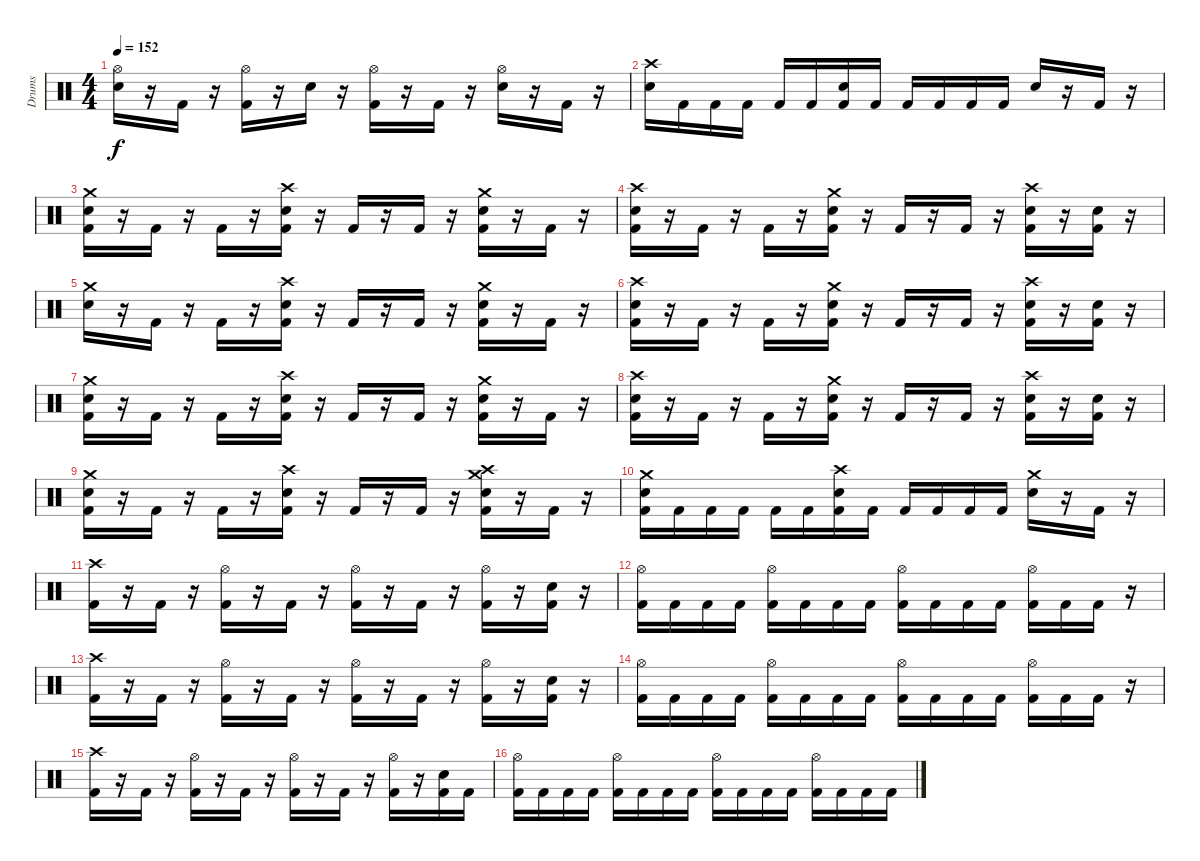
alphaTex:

\track ("Drums" "Drums") {instrument percussion}
\staff {score}
\articulation defaults
\ts (4 4)
\tempo 152
\clef neutral
\ks c
("Hi-Hat (open)" "Snare (hit) 2").16{dy f} r.16 "Kick (hit) 2".16 r.16 ("Hi-Hat (open)" "Kick (hit) 2").16 r.16 "Snare (hit) 2".16 r.16 ("Hi-Hat (open)" "Kick (hit) 2").16 r.16 "Kick (hit) 2".16 r.16 ("Hi-Hat (open)" "Snare (hit) 2").16 r.16 "Kick (hit) 2".16 r.16 |
("Crash high (hit)" "Snare (hit) 2").16 "Kick (hit) 2".16 "Kick (hit) 2".16 "Kick (hit) 2".16 "Kick (hit) 2".16 "Kick (hit) 2".16 ("Snare (hit) 2" "Kick (hit) 2").16 "Kick (hit) 2".16 "Kick (hit) 2".16 "Kick (hit) 2".16 "Kick (hit) 2".16 "Kick (hit) 2".16 "Snare (hit) 2".16 r.16 "Kick (hit) 2".16 r.16 |
("Crash medium (hit)" "Snare (hit) 2" "Kick (hit) 2").16 r.16 "Kick (hit) 2".16 r.16 "Kick (hit) 2".16 r.16 ("Crash high (hit)" "Snare (hit) 2" "Kick (hit) 2").16 r.16 "Kick (hit) 2".16 r.16 "Kick (hit) 2".16 r.16 ("Crash medium (hit)" "Snare (hit) 2" "Kick (hit) 2").16 r.16 "Kick (hit) 2".16 r.16 |
("Crash high (hit)" "Snare (hit) 2" "Kick (hit) 2").16 r.16 "Kick (hit) 2".16 r.16 "Kick (hit) 2".16 r.16 ("Crash medium (hit)" "Snare (hit) 2" "Kick (hit) 2").16 r.16 "Kick (hit) 2".16 r.16 "Kick (hit) 2".16 r.16 ("Crash high (hit)" "Snare (hit) 2" "Kick (hit) 2").16 r.16 ("Snare (hit) 2" "Kick (hit) 2").16 r.16 |
("Crash medium (hit)" "Snare (hit) 2").16 r.16 "Kick (hit) 2".16 r.16 "Kick (hit) 2".16 r.16 ("Crash high (hit)" "Snare (hit) 2" "Kick (hit) 2").16 r.16 "Kick (hit) 2".16 r.16 "Kick (hit) 2".16 r.16 ("Crash medium (hit)" "Snare (hit) 2" "Kick (hit) 2").16 r.16 "Kick (hit) 2".16 r.16 |
("Crash high (hit)" "Snare (hit) 2" "Kick (hit) 2").16 r.16 "Kick (hit) 2".16 r.16 "Kick (hit) 2".16 r.16 ("Crash medium (hit)" "Snare (hit) 2" "Kick (hit) 2").16 r.16 "Kick (hit) 2".16 r.16 "Kick (hit) 2".16 r.16 ("Crash high (hit)" "Snare (hit) 2" "Kick (hit) 2").16 r.16 ("Snare (hit) 2" "Kick (hit) 2").16 r.16 |
("Crash medium (hit)" "Snare (hit) 2" "Kick (hit) 2").16 r.16 "Kick (hit) 2".16 r.16 "Kick (hit) 2".16 r.16 ("Crash high (hit)" "Snare (hit) 2" "Kick (hit) 2").16 r.16 "Kick (hit) 2".16 r.16 "Kick (hit) 2".16 r.16 ("Crash medium (hit)" "Snare (hit) 2" "Kick (hit) 2").16 r.16 "Kick (hit) 2".16 r.16 |
("Crash high (hit)" "Snare (hit) 2" "Kick (hit) 2").16 r.16 "Kick (hit) 2".16 r.16 "Kick (hit) 2".16 r.16 ("Crash medium (hit)" "Snare (hit) 2" "Kick (hit) 2").16 r.16 "Kick (hit) 2".16 r.16 "Kick (hit) 2".16 r.16 ("Crash high (hit)" "Snare (hit) 2" "Kick (hit) 2").16 r.16 ("Snare (hit) 2" "Kick (hit) 2").16 r.16 |
("Crash medium (hit)" "Snare (hit) 2" "Kick (hit) 2").16 r.16 "Kick (hit) 2".16 r.16 "Kick (hit) 2".16 r.16 ("Crash high (hit)" "Snare (hit) 2" "Kick (hit) 2").16 r.16 "Kick (hit) 2".16 r.16 "Kick (hit) 2".16 r.16 ("Crash medium (hit)" "Crash high (hit)" "Snare (hit) 2" "Kick (hit) 2").16 r.16 "Kick (hit) 2".16 r.16 |
("Crash medium (hit)" "Snare (hit) 2" "Kick (hit) 2").16 "Kick (hit) 2".16 "Kick (hit) 2".16 "Kick (hit) 2".16 "Kick (hit) 2".16 "Kick (hit) 2".16 ("Crash high (hit)" "Snare (hit) 2" "Kick (hit) 2").16 "Kick (hit) 2".16 "Kick (hit) 2".16 "Kick (hit) 2".16 "Kick (hit) 2".16 "Kick (hit) 2".16 ("Crash medium (hit)" "Snare (hit) 2").16 r.16 "Kick (hit) 2".16 r.16 |
("Crash high (hit)" "Kick (hit) 2").16 r.16 "Kick (hit) 2".16 r.16 ("Hi-Hat (open)" "Kick (hit) 2").16 r.16 "Kick (hit) 2".16 r.16 ("Hi-Hat (open)" "Kick (hit) 2").16 r.16 "Kick (hit) 2".16 r.16 ("Hi-Hat (open)" "Kick (hit) 2").16 r.16 ("Snare (hit) 2" "Kick (hit) 2").16 r.16 |
("Hi-Hat (open)" "Kick (hit) 2").16 "Kick (hit) 2".16 "Kick (hit) 2".16 "Kick (hit) 2".16 ("Hi-Hat (open)" "Kick (hit) 2").16 "Kick (hit) 2".16 "Kick (hit) 2".16 "Kick (hit) 2".16 ("Hi-Hat (open)" "Kick (hit) 2").16 "Kick (hit) 2".16 "Kick (hit) 2".16 "Kick (hit) 2".16 ("Hi-Hat (open)" "Kick (hit) 2").16 "Kick (hit) 2".16 "Kick (hit) 2".16 r.16 |
("Crash high (hit)" "Kick (hit) 2").16 r.16 "Kick (hit) 2".16 r.16 ("Hi-Hat (open)" "Kick (hit) 2").16 r.16 "Kick (hit) 2".16 r.16 ("Hi-Hat (open)" "Kick (hit) 2").16 r.16 "Kick (hit) 2".16 r.16 ("Hi-Hat (open)" "Kick (hit) 2").16 r.16 ("Snare (hit) 2" "Kick (hit) 2").16 r.16 |
("Hi-Hat (open)" "Kick (hit) 2").16 "Kick (hit) 2".16 "Kick (hit) 2".16 "Kick (hit) 2".16 ("Hi-Hat (open)" "Kick (hit) 2").16 "Kick (hit) 2".16 "Kick (hit) 2".16 "Kick (hit) 2".16 ("Hi-Hat (open)" "Kick (hit) 2").16 "Kick (hit) 2".16 "Kick (hit) 2".16 "Kick (hit) 2".16 ("Hi-Hat (open)" "Kick (hit) 2").16 "Kick (hit) 2".16 "Kick (hit) 2".16 r.16 |
("Crash high (hit)" "Kick (hit) 2").16 r.16 "Kick (hit) 2".16 r.16 ("Hi-Hat (open)" "Kick (hit) 2").16 r.16 "Kick (hit) 2".16 r.16 ("Hi-Hat (open)" "Kick (hit) 2").16 r.16 "Kick (hit) 2".16 r.16 ("Hi-Hat (open)" "Kick (hit) 2").16 r.16 ("Snare (hit) 2" "Kick (hit) 2").16 "Kick (hit) 2".16 |
("Hi-Hat (open)" "Kick (hit) 2").16 "Kick (hit) 2".16 "Kick (hit) 2".16 "Kick (hit) 2".16 ("Hi-Hat (open)" "Kick (hit) 2").16 "Kick (hit) 2".16 "Kick (hit) 2".16 "Kick (hit) 2".16 ("Hi-Hat (open)" "Kick (hit) 2").16 "Kick (hit) 2".16 "Kick (hit) 2".16 "Kick (hit) 2".16 ("Hi-Hat (open)" "Kick (hit) 2").16 "Kick (hit) 2".16 "Kick (hit) 2".16 "Kick (hit) 2".16
